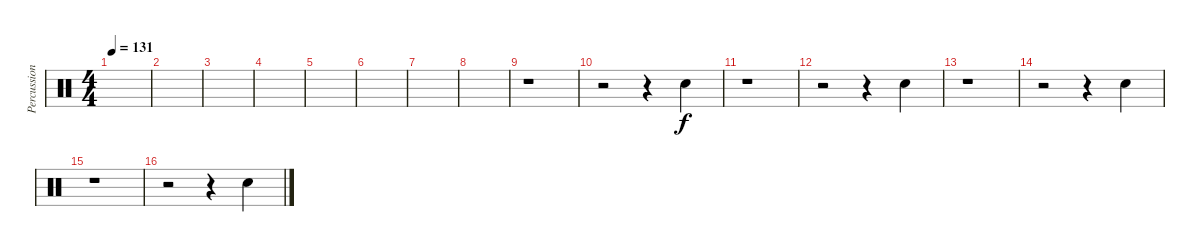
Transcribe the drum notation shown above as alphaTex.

\track ("Percussions" "Percussion") {instrument percussion}
\staff {score}
\articulation defaults
\ts (4 4)
\tempo 131
\clef neutral
\ks c
|
|
|
|
|
|
|
|
r.1 |
r.2 r.4 "Electric Snare (hit)".4 |
r.1 |
r.2 r.4 "Electric Snare (hit)".4 |
r.1 |
r.2 r.4 "Electric Snare (hit)".4 |
r.1 |
r.2 r.4 "Electric Snare (hit)".4
